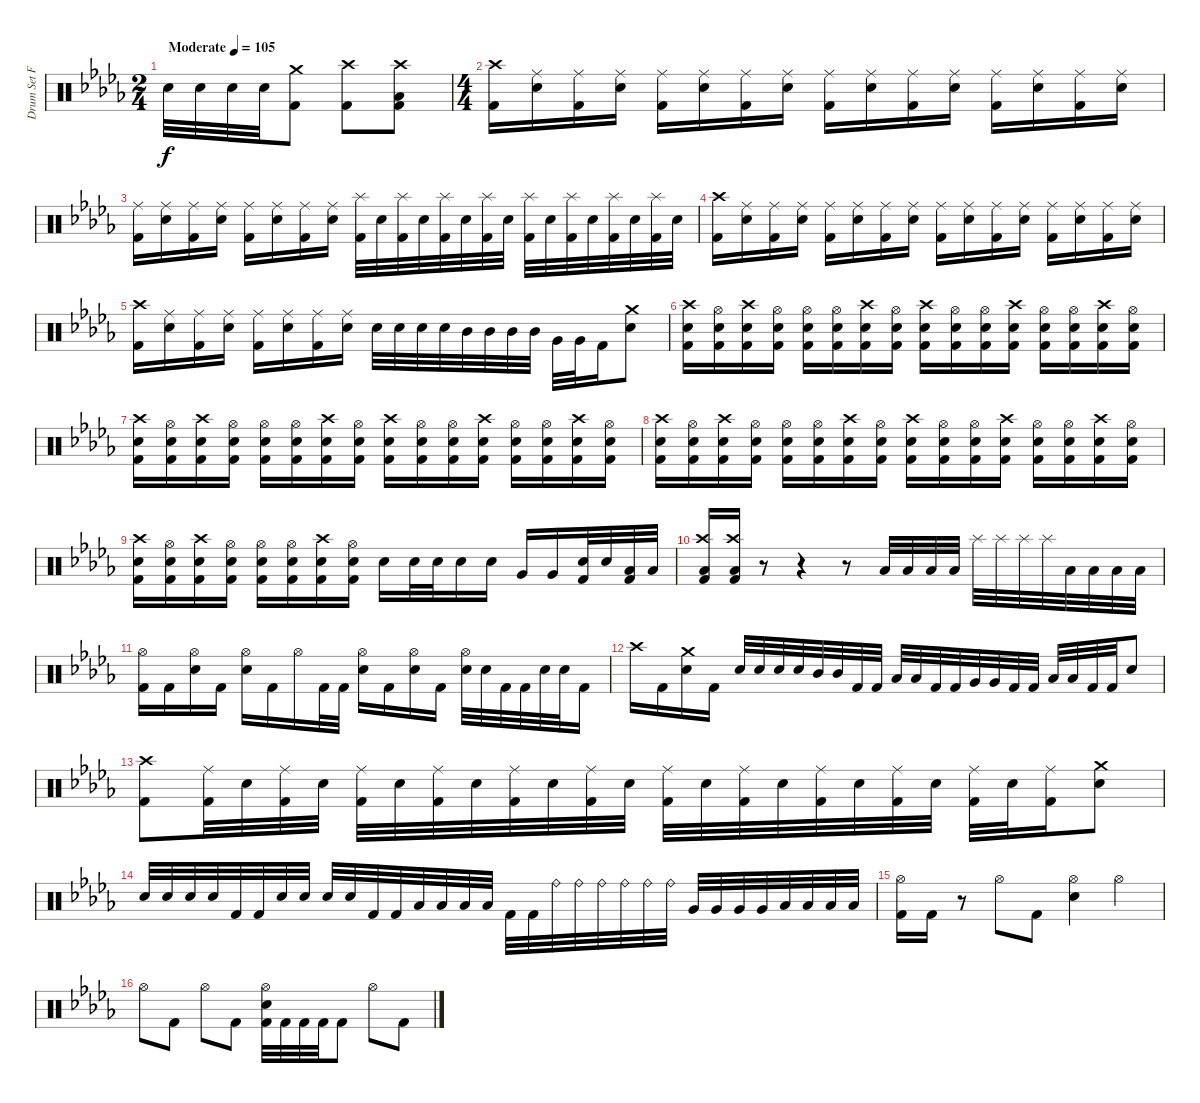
\track ("Drum Set Franz Brachmann" "Drum Set F") {instrument percussion}
\staff {score}
\articulation defaults
\ts (2 4)
\tempo (105 "Moderate")
\clef neutral
\ks bbminor "Electric Snare (hit)".32{dy f} "Electric Snare (hit)".32 "Electric Snare (hit)".32 "Electric Snare (hit)".32
("Crash medium (hit)" "Kick (hit) 2").8 ("Crash high (hit)" "Kick (hit) 2").8 ("Crash high (hit)" "Low Floor Tom (hit)" "Kick (hit) 2").8 |
\ts (4 4)
("Crash high (hit)" "Kick (hit) 2").16 ("Ride (middle)" "Electric Snare (hit)").16 ("Ride (middle)" "Kick (hit) 2").16 ("Ride (middle)" "Electric Snare (hit)").16 ("Ride (middle)" "Kick (hit) 2").16 ("Ride (middle)" "Electric Snare (hit)").16 ("Ride (middle)" "Kick (hit) 2").16 ("Ride (middle)" "Electric Snare (hit)").16 ("Ride (middle)" "Kick (hit) 2").16 ("Ride (middle)" "Electric Snare (hit)").16 ("Ride (middle)" "Kick (hit) 2").16 ("Ride (middle)" "Electric Snare (hit)").16 ("Ride (middle)" "Kick (hit) 2").16 ("Ride (middle)" "Electric Snare (hit)").16 ("Ride (middle)" "Kick (hit) 2").16 ("Ride (middle)" "Electric Snare (hit)").16 |
("Ride (middle)" "Kick (hit) 2").16 ("Ride (middle)" "Electric Snare (hit)").16 ("Ride (middle)" "Kick (hit) 2").16 ("Ride (middle)" "Electric Snare (hit)").16 ("Ride (middle)" "Kick (hit) 2").16 ("Ride (middle)" "Electric Snare (hit)").16 ("Ride (middle)" "Kick (hit) 2").16 ("Ride (middle)" "Electric Snare (hit)").16 ("Splash (hit)" "Kick (hit) 2").32 "Electric Snare (hit)".32 ("Splash (hit)" "Kick (hit) 2").32 "Electric Snare (hit)".32 ("Splash (hit)" "Kick (hit) 2").32 "Electric Snare (hit)".32 ("Splash (hit)" "Kick (hit) 2").32 "Electric Snare (hit)".32 ("Splash (hit)" "Kick (hit) 2").32 "Electric Snare (hit)".32 ("Splash (hit)" "Kick (hit) 2").32 "Electric Snare (hit)".32 ("Splash (hit)" "Kick (hit) 2").32 "Electric Snare (hit)".32 ("Splash (hit)" "Kick (hit) 2").32 "Electric Snare (hit)".32 |
("Crash high (hit)" "Kick (hit) 2").16 ("Ride (middle)" "Electric Snare (hit)").16 ("Ride (middle)" "Kick (hit) 2").16 ("Ride (middle)" "Electric Snare (hit)").16 ("Ride (middle)" "Kick (hit) 2").16 ("Ride (middle)" "Electric Snare (hit)").16 ("Ride (middle)" "Kick (hit) 2").16 ("Ride (middle)" "Electric Snare (hit)").16 ("Ride (middle)" "Kick (hit) 2").16 ("Ride (middle)" "Electric Snare (hit)").16 ("Ride (middle)" "Kick (hit) 2").16 ("Ride (middle)" "Electric Snare (hit)").16 ("Ride (middle)" "Kick (hit) 2").16 ("Ride (middle)" "Electric Snare (hit)").16 ("Ride (middle)" "Kick (hit) 2").16 ("Ride (middle)" "Electric Snare (hit)").16 |
("Crash high (hit)" "Kick (hit) 2").16 ("Ride (middle)" "Electric Snare (hit)").16 ("Ride (middle)" "Kick (hit) 2").16 ("Ride (middle)" "Electric Snare (hit)").16 ("Ride (middle)" "Kick (hit) 2").16 ("Ride (middle)" "Electric Snare (hit)").16 ("Ride (middle)" "Kick (hit) 2").16 ("Ride (middle)" "Electric Snare (hit)").16 "Electric Snare (hit)".32 "Electric Snare (hit)".32 "Electric Snare (hit)".32 "Electric Snare (hit)".32 "Mid Tom (hit)".32 "Mid Tom (hit)".32 "Mid Tom (hit)".32 "Mid Tom (hit)".32 "Very Low Tom (hit)".32 "Very Low Tom (hit)".32 "Kick (hit) 2".16 ("Crash medium (hit)" "Electric Snare (hit)").8 |
("Crash high (hit)" "Electric Snare (hit)" "Kick (hit) 2").16 ("Hi-Hat (open)" "Electric Snare (hit)" "Kick (hit) 2").16 ("Crash high (hit)" "Electric Snare (hit)" "Kick (hit) 2").16 ("Hi-Hat (open)" "Electric Snare (hit)" "Kick (hit) 2").16 ("Hi-Hat (open)" "Electric Snare (hit)" "Kick (hit) 2").16 ("Hi-Hat (open)" "Electric Snare (hit)" "Kick (hit) 2").16 ("Crash high (hit)" "Electric Snare (hit)" "Kick (hit) 2").16 ("Hi-Hat (open)" "Electric Snare (hit)" "Kick (hit) 2").16 ("Crash high (hit)" "Electric Snare (hit)" "Kick (hit) 2").16 ("Hi-Hat (open)" "Electric Snare (hit)" "Kick (hit) 2").16 ("Hi-Hat (open)" "Electric Snare (hit)" "Kick (hit) 2").16 ("Crash high (hit)" "Electric Snare (hit)" "Kick (hit) 2").16 ("Hi-Hat (open)" "Electric Snare (hit)" "Kick (hit) 2").16 ("Hi-Hat (open)" "Electric Snare (hit)" "Kick (hit) 2").16 ("Crash high (hit)" "Electric Snare (hit)" "Kick (hit) 2").16 ("Hi-Hat (open)" "Electric Snare (hit)" "Kick (hit) 2").16 |
("Crash high (hit)" "Electric Snare (hit)" "Kick (hit) 2").16 ("Hi-Hat (open)" "Electric Snare (hit)" "Kick (hit) 2").16 ("Crash high (hit)" "Electric Snare (hit)" "Kick (hit) 2").16 ("Hi-Hat (open)" "Electric Snare (hit)" "Kick (hit) 2").16 ("Hi-Hat (open)" "Electric Snare (hit)" "Kick (hit) 2").16 ("Hi-Hat (open)" "Electric Snare (hit)" "Kick (hit) 2").16 ("Crash high (hit)" "Electric Snare (hit)" "Kick (hit) 2").16 ("Hi-Hat (open)" "Electric Snare (hit)" "Kick (hit) 2").16 ("Crash high (hit)" "Electric Snare (hit)" "Kick (hit) 2").16 ("Hi-Hat (open)" "Electric Snare (hit)" "Kick (hit) 2").16 ("Hi-Hat (open)" "Electric Snare (hit)" "Kick (hit) 2").16 ("Crash high (hit)" "Electric Snare (hit)" "Kick (hit) 2").16 ("Hi-Hat (open)" "Electric Snare (hit)" "Kick (hit) 2").16 ("Hi-Hat (open)" "Electric Snare (hit)" "Kick (hit) 2").16 ("Crash high (hit)" "Electric Snare (hit)" "Kick (hit) 2").16 ("Hi-Hat (open)" "Electric Snare (hit)" "Kick (hit) 2").16 |
("Crash high (hit)" "Electric Snare (hit)" "Kick (hit) 2").16 ("Hi-Hat (open)" "Electric Snare (hit)" "Kick (hit) 2").16 ("Crash high (hit)" "Electric Snare (hit)" "Kick (hit) 2").16 ("Hi-Hat (open)" "Electric Snare (hit)" "Kick (hit) 2").16 ("Hi-Hat (open)" "Electric Snare (hit)" "Kick (hit) 2").16 ("Hi-Hat (open)" "Electric Snare (hit)" "Kick (hit) 2").16 ("Crash high (hit)" "Electric Snare (hit)" "Kick (hit) 2").16 ("Hi-Hat (open)" "Electric Snare (hit)" "Kick (hit) 2").16 ("Crash high (hit)" "Electric Snare (hit)" "Kick (hit) 2").16 ("Hi-Hat (open)" "Electric Snare (hit)" "Kick (hit) 2").16 ("Hi-Hat (open)" "Electric Snare (hit)" "Kick (hit) 2").16 ("Crash high (hit)" "Electric Snare (hit)" "Kick (hit) 2").16 ("Hi-Hat (open)" "Electric Snare (hit)" "Kick (hit) 2").16 ("Hi-Hat (open)" "Electric Snare (hit)" "Kick (hit) 2").16 ("Crash high (hit)" "Electric Snare (hit)" "Kick (hit) 2").16 ("Hi-Hat (open)" "Electric Snare (hit)" "Kick (hit) 2").16 |
("Crash high (hit)" "Electric Snare (hit)" "Kick (hit) 2").16 ("Hi-Hat (open)" "Electric Snare (hit)" "Kick (hit) 2").16 ("Crash high (hit)" "Electric Snare (hit)" "Kick (hit) 2").16 ("Hi-Hat (open)" "Electric Snare (hit)" "Kick (hit) 2").16 ("Hi-Hat (open)" "Electric Snare (hit)" "Kick (hit) 2").16 ("Hi-Hat (open)" "Electric Snare (hit)" "Kick (hit) 2").16 ("Crash high (hit)" "Electric Snare (hit)" "Kick (hit) 2").16 ("Hi-Hat (open)" "Electric Snare (hit)" "Kick (hit) 2").16 "Electric Snare (hit)".16 "Electric Snare (hit)".32 "Electric Snare (hit)".32 "Electric Snare (hit)".16 "Electric Snare (hit)".16 "Very Low Tom (hit)".16 "Very Low Tom (hit)".16 ("Electric Snare (hit)" "Kick (hit) 2").32 "Electric Snare (hit)".32 ("Low Tom (hit)" "Kick (hit) 2").32 "Low Tom (hit)".32 |
("Crash high (hit)" "Low Floor Tom (hit)" "Kick (hit) 2").16 ("Crash high (hit)" "Low Floor Tom (hit)" "Kick (hit) 2").16 r.8 r.4 r.8 "Low Tom (hit)".32 "Low Tom (hit)".32 "Low Tom (hit)".32 "Low Tom (hit)".32 "Splash (hit)".32 "Splash (hit)".32 "Splash (hit)".32 "Splash (hit)".32 "Low Tom (hit)".32 "Low Tom (hit)".32 "Low Tom (hit)".32 "Low Tom (hit)".32 |
("Hi-Hat (open)" "Kick (hit) 2").16 "Kick (hit) 2".16 ("Hi-Hat (open)" "Electric Snare (hit)").16 "Kick (hit) 2".16 ("Hi-Hat (open)" "Electric Snare (hit)").16 "Kick (hit) 2".16 "Hi-Hat (open)".16 "Kick (hit) 2".32 "Kick (hit) 2".32 ("Hi-Hat (open)" "Electric Snare (hit)").16 "Kick (hit) 2".16 ("Hi-Hat (open)" "Electric Snare (hit)").16 "Kick (hit) 2".16 ("Hi-Hat (open)" "Electric Snare (hit)").32 "Electric Snare (hit)".32 "Kick (hit) 2".32 "Kick (hit) 2".32 "Electric Snare (hit)".32 "Electric Snare (hit)".32 "Kick (hit) 2".16 |
"Crash high (hit)".16 "Kick (hit) 2".16 ("Crash medium (hit)" "Electric Snare (hit)").16 "Kick (hit) 2".16 "Electric Snare (hit)".32 "Electric Snare (hit)".32 "Electric Snare (hit)".32 "Electric Snare (hit)".32 "Mid Tom (hit)".32 "Mid Tom (hit)".32 "Kick (hit) 2".32 "Kick (hit) 2".32 "Low Tom (hit)".32 "Low Tom (hit)".32 "Kick (hit) 2".32 "Kick (hit) 2".32 "Very Low Tom (hit)".32 "Very Low Tom (hit)".32 "Kick (hit) 2".32 "Kick (hit) 2".32 "Low Floor Tom (hit)".32 "Low Floor Tom (hit)".32 "Kick (hit) 2".32 "Kick (hit) 2".32 "Electric Snare (hit)".8 |
("Crash high (hit)" "Kick (hit) 2").8 ("Ride (middle)" "Kick (hit) 2").32 "Electric Snare (hit)".32 ("Ride (middle)" "Kick (hit) 2").32 "Electric Snare (hit)".32 ("Ride (middle)" "Kick (hit) 2").32 "Electric Snare (hit)".32 ("Ride (middle)" "Kick (hit) 2").32 "Electric Snare (hit)".32 ("Ride (middle)" "Kick (hit) 2").32 "Electric Snare (hit)".32 ("Ride (middle)" "Kick (hit) 2").32 "Electric Snare (hit)".32 ("Ride (middle)" "Kick (hit) 2").32 "Electric Snare (hit)".32 ("Ride (middle)" "Kick (hit) 2").32 "Electric Snare (hit)".32 ("Ride (middle)" "Kick (hit) 2").32 "Electric Snare (hit)".32 ("Ride (middle)" "Kick (hit) 2").32 "Electric Snare (hit)".32 ("Ride (middle)" "Kick (hit) 2").32 "Electric Snare (hit)".32 ("Ride (middle)" "Kick (hit) 2").16 ("Crash medium (hit)" "Electric Snare (hit)").8 |
"Electric Snare (hit)".32 "Electric Snare (hit)".32 "Electric Snare (hit)".32 "Electric Snare (hit)".32 "Kick (hit) 2".32 "Kick (hit) 2".32 "Electric Snare (hit)".32 "Electric Snare (hit)".32 "Electric Snare (hit)".32 "Electric Snare (hit)".32 "Kick (hit) 2".32 "Kick (hit) 2".32 "Low Tom (hit)".32 "Low Tom (hit)".32 "Low Tom (hit)".32 "Low Tom (hit)".32 "Kick (hit) 2".32 "Kick (hit) 2".32 "Ride (bell)".32 "Ride (bell)".32 "Ride (bell)".32 "Ride (bell)".32 "Ride (bell)".32 "Ride (bell)".32 "Very Low Tom (hit)".32 "Very Low Tom (hit)".32 "Very Low Tom (hit)".32 "Very Low Tom (hit)".32 "Low Floor Tom (hit)".32 "Low Floor Tom (hit)".32 "Low Floor Tom (hit)".32 "Low Floor Tom (hit)".32 |
("Hi-Hat (open)" "Kick (hit) 2").16 "Kick (hit) 2".16 r.8 "Hi-Hat (open)".8 "Kick (hit) 2".8 ("Hi-Hat (open)" "Electric Snare (hit)").4 "Hi-Hat (open)".4 |
"Hi-Hat (open)".8 "Kick (hit) 2".8 "Hi-Hat (open)".8 "Kick (hit) 2".8 ("Hi-Hat (open)" "Electric Snare (hit)" "Kick (hit) 2").32 "Kick (hit) 2".32 "Kick (hit) 2".32 "Kick (hit) 2".32 "Kick (hit) 2".8 "Hi-Hat (open)".8 "Kick (hit) 2".8
